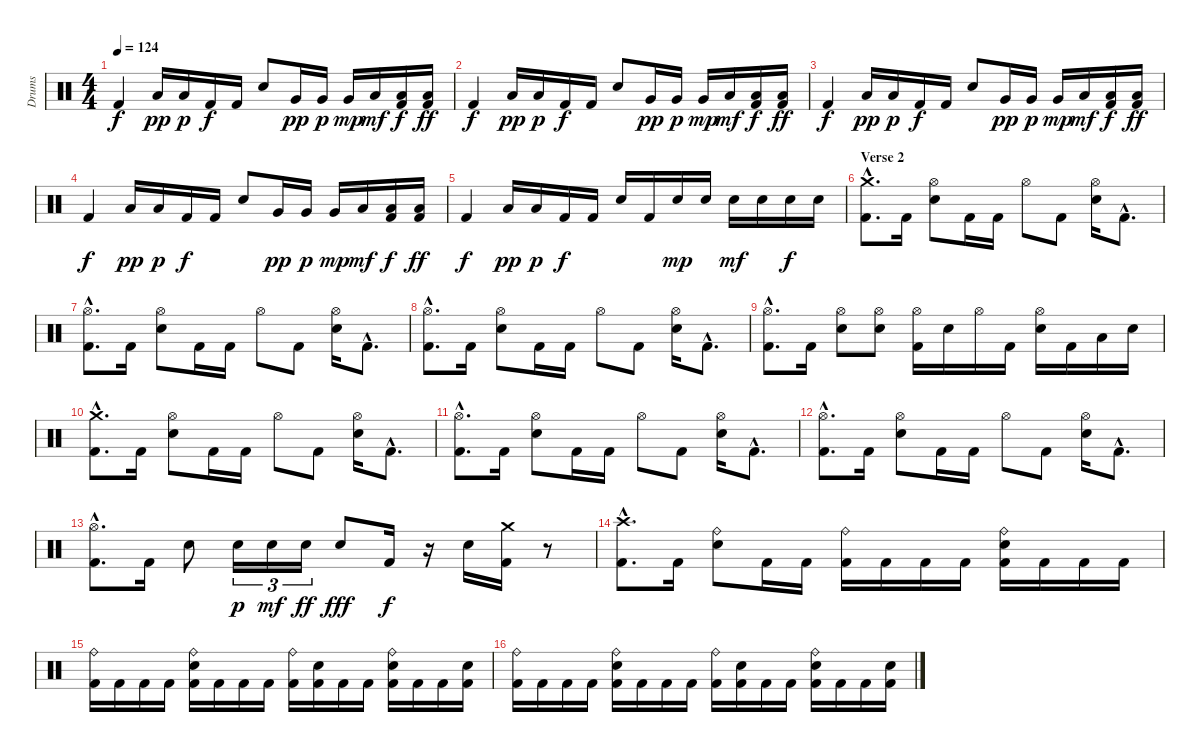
\track ("Drums" "Drums") {instrument percussion}
\staff {score}
\articulation defaults
\ts (4 4)
\tempo 124
\clef neutral
\ks c "Kick (hit) 2".4{dy f} "Low Floor Tom (hit)".16{dy pp} "Low Floor Tom (hit)".16{dy p} "Kick (hit) 2".16{dy f} "Kick (hit) 2".16 "Snare (hit) 2".8 "Very Low Tom (hit)".16{dy pp} "Very Low Tom (hit)".16{dy p} "Very Low Tom (hit)".16{dy mp} "Low Floor Tom (hit)".16{dy mf}
("Low Floor Tom (hit)" "Kick (hit) 2").16{dy f} ("Low Floor Tom (hit)" "Kick (hit) 2").16{dy ff} |
"Kick (hit) 2".4{dy f} "Low Floor Tom (hit)".16{dy pp} "Low Floor Tom (hit)".16{dy p} "Kick (hit) 2".16{dy f} "Kick (hit) 2".16 "Snare (hit) 2".8 "Very Low Tom (hit)".16{dy pp} "Very Low Tom (hit)".16{dy p} "Very Low Tom (hit)".16{dy mp} "Low Floor Tom (hit)".16{dy mf} ("Low Floor Tom (hit)" "Kick (hit) 2").16{dy f} ("Low Floor Tom (hit)" "Kick (hit) 2").16{dy ff} |
"Kick (hit) 2".4{dy f} "Low Floor Tom (hit)".16{dy pp} "Low Floor Tom (hit)".16{dy p} "Kick (hit) 2".16{dy f} "Kick (hit) 2".16 "Snare (hit) 2".8 "Very Low Tom (hit)".16{dy pp} "Very Low Tom (hit)".16{dy p} "Very Low Tom (hit)".16{dy mp} "Low Floor Tom (hit)".16{dy mf} ("Low Floor Tom (hit)" "Kick (hit) 2").16{dy f} ("Low Floor Tom (hit)" "Kick (hit) 2").16{dy ff} |
"Kick (hit) 2".4{dy f} "Low Floor Tom (hit)".16{dy pp} "Low Floor Tom (hit)".16{dy p} "Kick (hit) 2".16{dy f} "Kick (hit) 2".16 "Snare (hit) 2".8 "Very Low Tom (hit)".16{dy pp} "Very Low Tom (hit)".16{dy p} "Very Low Tom (hit)".16{dy mp} "Low Floor Tom (hit)".16{dy mf} ("Low Floor Tom (hit)" "Kick (hit) 2").16{dy f} ("Low Floor Tom (hit)" "Kick (hit) 2").16{dy ff} |
"Kick (hit) 2".4{dy f} "Low Floor Tom (hit)".16{dy pp} "Low Floor Tom (hit)".16{dy p} "Kick (hit) 2".16{dy f} "Kick (hit) 2".16 "Snare (hit) 2".16 "Kick (hit) 2".16 "Snare (hit) 2".16{dy mp} "Snare (hit) 2".16 "Snare (hit) 2".16{dy mf} "Snare (hit) 2".16 "Snare (hit) 2".16{dy f} "Snare (hit) 2".16 |
\section ("" "Verse 2")
("Crash medium (hit)"{hac} "Kick (hit) 2"{hac}).8{d} "Kick (hit) 2".16 ("Hi-Hat (open)" "Snare (hit) 2").8 "Kick (hit) 2".16 "Kick (hit) 2".16 "Hi-Hat (open)".8 "Kick (hit) 2".8 ("Hi-Hat (open)" "Snare (hit) 2").16 "Kick (hit) 2"{hac}.8{d} |
("Hi-Hat (open)"{hac} "Kick (hit) 2"{hac}).8{d} "Kick (hit) 2".16 ("Hi-Hat (open)" "Snare (hit) 2").8 "Kick (hit) 2".16 "Kick (hit) 2".16 "Hi-Hat (open)".8 "Kick (hit) 2".8 ("Hi-Hat (open)" "Snare (hit) 2").16 "Kick (hit) 2"{hac}.8{d} |
("Hi-Hat (open)"{hac} "Kick (hit) 2"{hac}).8{d} "Kick (hit) 2".16 ("Hi-Hat (open)" "Snare (hit) 2").8 "Kick (hit) 2".16 "Kick (hit) 2".16 "Hi-Hat (open)".8 "Kick (hit) 2".8 ("Hi-Hat (open)" "Snare (hit) 2").16 "Kick (hit) 2"{hac}.8{d} |
("Hi-Hat (open)"{hac} "Kick (hit) 2"{hac}).8{d} "Kick (hit) 2".16 ("Hi-Hat (open)" "Snare (hit) 2").8 ("Hi-Hat (open)" "Snare (hit) 2").8 ("Hi-Hat (open)" "Kick (hit) 2").16 "Snare (hit) 2".16 "Hi-Hat (open)".16 "Kick (hit) 2".16 ("Hi-Hat (open)" "Snare (hit) 2").16 "Kick (hit) 2".16 "Low Tom (hit)".16 "Snare (hit) 2".16 |
("Crash medium (hit)"{hac} "Kick (hit) 2"{hac}).8{d} "Kick (hit) 2".16 ("Hi-Hat (open)" "Snare (hit) 2").8 "Kick (hit) 2".16 "Kick (hit) 2".16 "Hi-Hat (open)".8 "Kick (hit) 2".8 ("Hi-Hat (open)" "Snare (hit) 2").16 "Kick (hit) 2"{hac}.8{d} |
("Hi-Hat (open)"{hac} "Kick (hit) 2"{hac}).8{d} "Kick (hit) 2".16 ("Hi-Hat (open)" "Snare (hit) 2").8 "Kick (hit) 2".16 "Kick (hit) 2".16 "Hi-Hat (open)".8 "Kick (hit) 2".8 ("Hi-Hat (open)" "Snare (hit) 2").16 "Kick (hit) 2"{hac}.8{d} |
("Hi-Hat (open)"{hac} "Kick (hit) 2"{hac}).8{d} "Kick (hit) 2".16 ("Hi-Hat (open)" "Snare (hit) 2").8 "Kick (hit) 2".16 "Kick (hit) 2".16 "Hi-Hat (open)".8 "Kick (hit) 2".8 ("Hi-Hat (open)" "Snare (hit) 2").16 "Kick (hit) 2"{hac}.8{d} |
("Hi-Hat (open)"{hac} "Kick (hit) 2"{hac}).8{d} "Kick (hit) 2".16 "Snare (hit) 2".8 "Snare (hit) 2".16{tu (3 2) dy p} "Snare (hit) 2".16{tu (3 2) dy mf} "Snare (hit) 2".16{tu (3 2) dy ff} "Snare (hit) 2".8{dy fff} "Kick (hit) 2".16{dy f} r.16 "Snare (hit) 2".16 ("Crash medium (hit)" "Kick (hit) 2").16 r.8 |
\section ("" "")
("Crash high (hit)"{hac} "Kick (hit) 2"{hac}).8{d} "Kick (hit) 2".16 ("Ride (bell)" "Snare (hit) 2").8 "Kick (hit) 2".16 "Kick (hit) 2".16 ("Ride (bell)" "Kick (hit) 2").16 "Kick (hit) 2".16 "Kick (hit) 2".16 "Kick (hit) 2".16 ("Ride (bell)" "Snare (hit) 2" "Kick (hit) 2").16 "Kick (hit) 2".16 "Kick (hit) 2".16 "Kick (hit) 2".16 |
("Ride (bell)" "Kick (hit) 2").16 "Kick (hit) 2".16 "Kick (hit) 2".16 "Kick (hit) 2".16 ("Ride (bell)" "Snare (hit) 2" "Kick (hit) 2").16 "Kick (hit) 2".16 "Kick (hit) 2".16 "Kick (hit) 2".16 ("Ride (bell)" "Kick (hit) 2").16 ("Snare (hit) 2" "Kick (hit) 2").16 "Kick (hit) 2".16 "Kick (hit) 2".16 ("Ride (bell)" "Snare (hit) 2" "Kick (hit) 2").16 "Kick (hit) 2".16 "Kick (hit) 2".16 ("Snare (hit) 2" "Kick (hit) 2").16 |
("Ride (bell)" "Kick (hit) 2").16 "Kick (hit) 2".16 "Kick (hit) 2".16 "Kick (hit) 2".16 ("Ride (bell)" "Snare (hit) 2" "Kick (hit) 2").16 "Kick (hit) 2".16 "Kick (hit) 2".16 "Kick (hit) 2".16 ("Ride (bell)" "Kick (hit) 2").16 ("Snare (hit) 2" "Kick (hit) 2").16 "Kick (hit) 2".16 "Kick (hit) 2".16 ("Ride (bell)" "Snare (hit) 2" "Kick (hit) 2").16 "Kick (hit) 2".16 "Kick (hit) 2".16 ("Snare (hit) 2" "Kick (hit) 2").16
